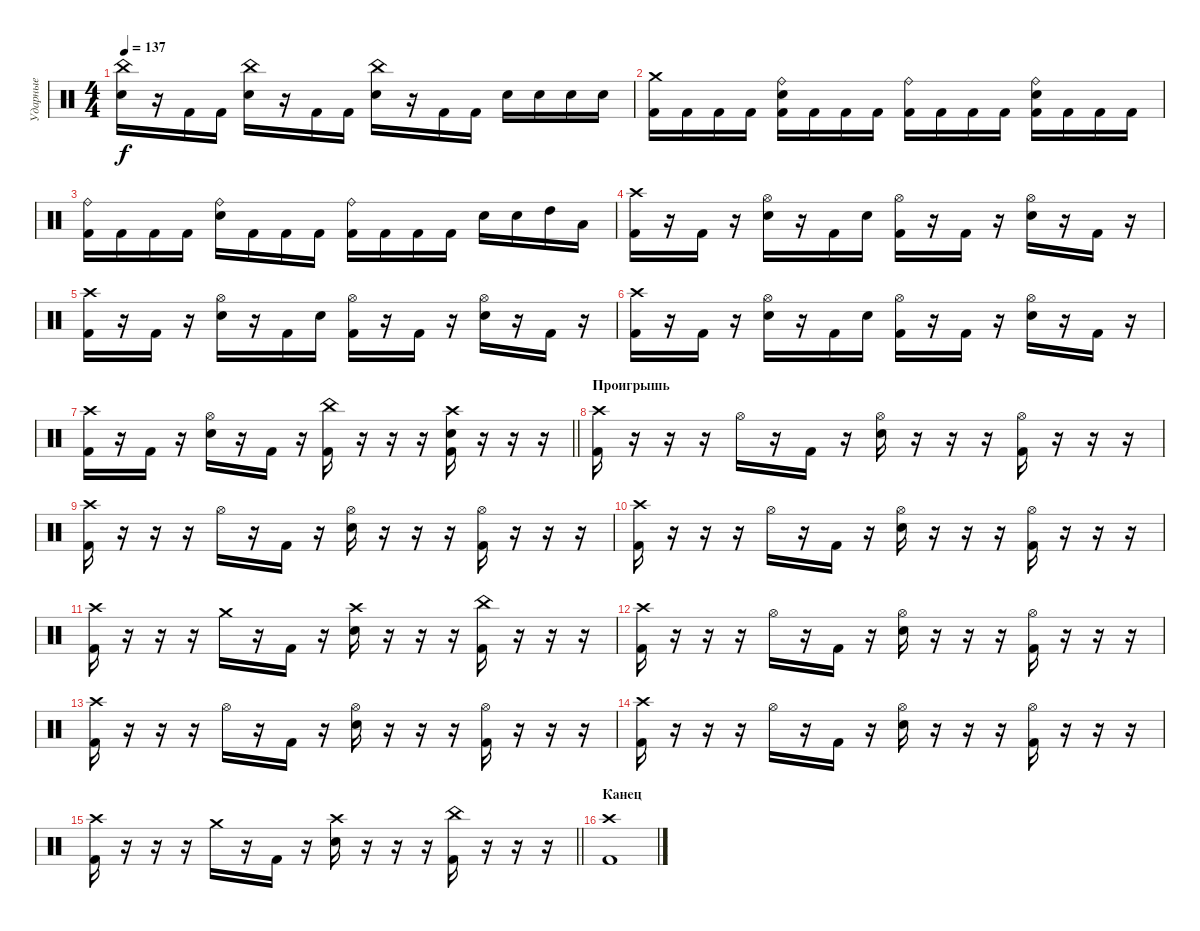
\track ("Ударные" "Ударные") {instrument percussion}
\staff {score}
\articulation defaults
\ts (4 4)
\tempo 137
\clef neutral
\ks c
("Snare (hit) 2" "China (hit)").16{dy f} r.16 "Kick (hit) 2".16 "Kick (hit) 2".16 ("Snare (hit) 2" "China (hit)").16 r.16 "Kick (hit) 2".16 "Kick (hit) 2".16 ("Snare (hit) 2" "China (hit)").16 r.16 "Kick (hit) 2".16 "Kick (hit) 2".16 "Snare (hit) 2".16 "Snare (hit) 2".16 "Snare (hit) 2".16 "Snare (hit) 2".16 |
("Kick (hit) 2" "Crash medium (hit)").16 "Kick (hit) 2".16 "Kick (hit) 2".16 "Kick (hit) 2".16 ("Kick (hit) 2" "Snare (hit) 2" "Ride (bell)").16 "Kick (hit) 2".16 "Kick (hit) 2".16 "Kick (hit) 2".16 ("Kick (hit) 2" "Ride (bell)").16 "Kick (hit) 2".16 "Kick (hit) 2".16 "Kick (hit) 2".16 ("Kick (hit) 2" "Snare (hit) 2" "Ride (bell)").16 "Kick (hit) 2".16 "Kick (hit) 2".16 "Kick (hit) 2".16 |
("Kick (hit) 2" "Ride (bell)").16 "Kick (hit) 2".16 "Kick (hit) 2".16 "Kick (hit) 2".16 ("Snare (hit) 2" "Ride (bell)").16 "Kick (hit) 2".16 "Kick (hit) 2".16 "Kick (hit) 2".16 ("Kick (hit) 2" "Ride (bell)").16 "Kick (hit) 2".16 "Kick (hit) 2".16 "Kick (hit) 2".16 "Snare (hit) 2".16 "Snare (hit) 2".16 "High Tom (hit)".16 "Low Tom (hit)".16 |
("Kick (hit) 2" "Crash high (hit)").16 r.16 "Kick (hit) 2".16 r.16 ("Snare (hit) 2" "Hi-Hat (open)").16 r.16 "Kick (hit) 2".16 "Snare (hit) 2".16 ("Kick (hit) 2" "Hi-Hat (open)").16 r.16 "Kick (hit) 2".16 r.16 ("Snare (hit) 2" "Hi-Hat (open)").16 r.16 "Kick (hit) 2".16 r.16 |
("Kick (hit) 2" "Crash high (hit)").16 r.16 "Kick (hit) 2".16 r.16 ("Snare (hit) 2" "Hi-Hat (open)").16 r.16 "Kick (hit) 2".16 "Snare (hit) 2".16 ("Kick (hit) 2" "Hi-Hat (open)").16 r.16 "Kick (hit) 2".16 r.16 ("Snare (hit) 2" "Hi-Hat (open)").16 r.16 "Kick (hit) 2".16 r.16 |
("Kick (hit) 2" "Crash high (hit)").16 r.16 "Kick (hit) 2".16 r.16 ("Snare (hit) 2" "Hi-Hat (open)").16 r.16 "Kick (hit) 2".16 "Snare (hit) 2".16 ("Kick (hit) 2" "Hi-Hat (open)").16 r.16 "Kick (hit) 2".16 r.16 ("Snare (hit) 2" "Hi-Hat (open)").16 r.16 "Kick (hit) 2".16 r.16 |
\barLineRight lightlight
("Kick (hit) 2" "Crash high (hit)").16 r.16 "Kick (hit) 2".16 r.16 ("Snare (hit) 2" "Hi-Hat (open)").16 r.16 "Kick (hit) 2".16 r.16 ("Kick (hit) 2" "China (hit)").16 r.16 r.16 r.16 ("Kick (hit) 2" "Snare (hit) 2" "Crash high (hit)").16 r.16 r.16 r.16 |
\section ("" "Проигрышь")
("Kick (hit) 2" "Crash high (hit)").16 r.16 r.16 r.16 "Hi-Hat (open)".16 r.16 "Kick (hit) 2".16 r.16 ("Snare (hit) 2" "Hi-Hat (open)").16 r.16 r.16 r.16 ("Kick (hit) 2" "Hi-Hat (open)").16 r.16 r.16 r.16 |
("Kick (hit) 2" "Crash high (hit)").16 r.16 r.16 r.16 "Hi-Hat (open)".16 r.16 "Kick (hit) 2".16 r.16 ("Snare (hit) 2" "Hi-Hat (open)").16 r.16 r.16 r.16 ("Kick (hit) 2" "Hi-Hat (open)").16 r.16 r.16 r.16 |
("Kick (hit) 2" "Crash high (hit)").16 r.16 r.16 r.16 "Hi-Hat (open)".16 r.16 "Kick (hit) 2".16 r.16 ("Snare (hit) 2" "Hi-Hat (open)").16 r.16 r.16 r.16 ("Kick (hit) 2" "Hi-Hat (open)").16 r.16 r.16 r.16 |
("Kick (hit) 2" "Crash high (hit)").16 r.16 r.16 r.16 "Crash medium (hit)".16 r.16 "Kick (hit) 2".16 r.16 ("Snare (hit) 2" "Crash high (hit)").16 r.16 r.16 r.16 ("Kick (hit) 2" "China (hit)").16 r.16 r.16 r.16 |
("Kick (hit) 2" "Crash high (hit)").16 r.16 r.16 r.16 "Hi-Hat (open)".16 r.16 "Kick (hit) 2".16 r.16 ("Snare (hit) 2" "Hi-Hat (open)").16 r.16 r.16 r.16 ("Kick (hit) 2" "Hi-Hat (open)").16 r.16 r.16 r.16 |
("Kick (hit) 2" "Crash high (hit)").16 r.16 r.16 r.16 "Hi-Hat (open)".16 r.16 "Kick (hit) 2".16 r.16 ("Snare (hit) 2" "Hi-Hat (open)").16 r.16 r.16 r.16 ("Kick (hit) 2" "Hi-Hat (open)").16 r.16 r.16 r.16 |
("Kick (hit) 2" "Crash high (hit)").16 r.16 r.16 r.16 "Hi-Hat (open)".16 r.16 "Kick (hit) 2".16 r.16 ("Snare (hit) 2" "Hi-Hat (open)").16 r.16 r.16 r.16 ("Kick (hit) 2" "Hi-Hat (open)").16 r.16 r.16 r.16 |
\barLineRight lightlight
("Kick (hit) 2" "Crash high (hit)").16 r.16 r.16 r.16 "Crash medium (hit)".16 r.16 "Kick (hit) 2".16 r.16 ("Snare (hit) 2" "Crash high (hit)").16 r.16 r.16 r.16 ("Kick (hit) 2" "China (hit)").16 r.16 r.16 r.16 |
\section ("" "Канец")
("Kick (hit) 2" "Crash high (hit)").1
